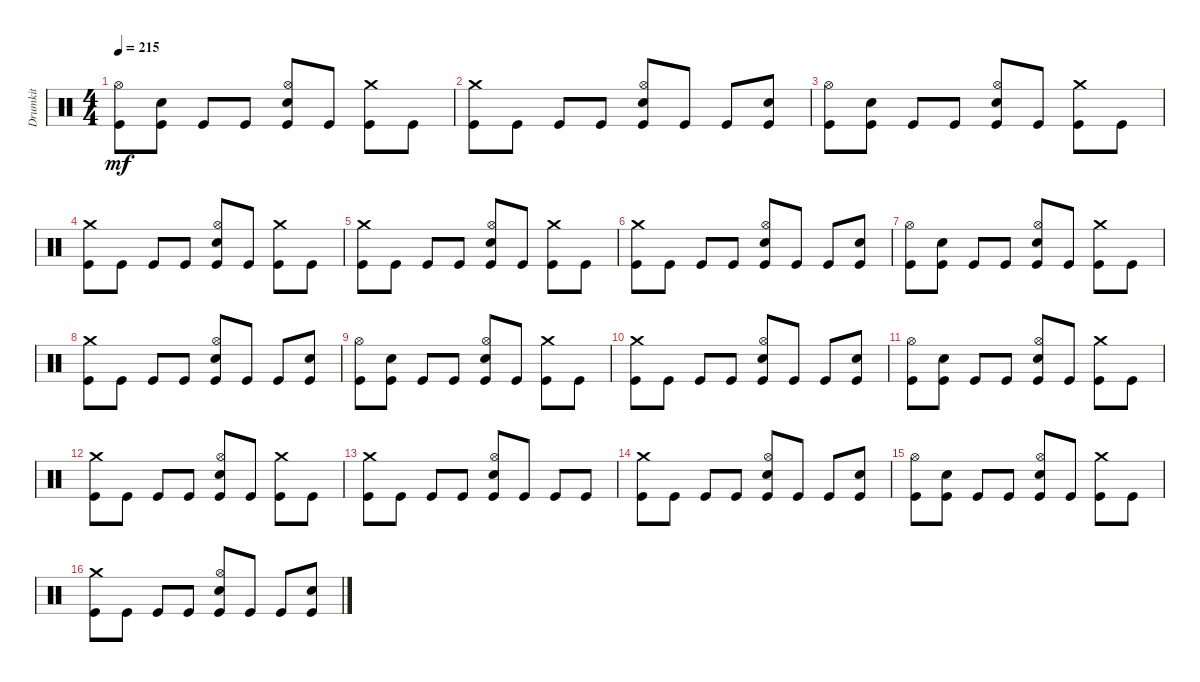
\track ("Drumkit" "Drumkit") {instrument percussion}
\staff {score}
\articulation defaults
\ts (4 4)
\tempo 215
\clef neutral
\ks c
("Kick (hit)" "Hi-Hat (open)").8{dy mf} ("Kick (hit)" "Snare (hit) 2").8 "Kick (hit)".8 "Kick (hit)".8 ("Kick (hit)" "Snare (hit) 2" "Hi-Hat (open)").8 "Kick (hit)".8 ("Kick (hit)" "Crash medium (hit)").8 "Kick (hit)".8 |
("Kick (hit)" "Crash medium (hit)").8 "Kick (hit)".8 "Kick (hit)".8 "Kick (hit)".8 ("Kick (hit)" "Snare (hit) 2" "Hi-Hat (open)").8 "Kick (hit)".8 "Kick (hit)".8 ("Kick (hit)" "Snare (hit) 2").8 |
("Kick (hit)" "Hi-Hat (open)").8 ("Kick (hit)" "Snare (hit) 2").8 "Kick (hit)".8 "Kick (hit)".8 ("Kick (hit)" "Snare (hit) 2" "Hi-Hat (open)").8 "Kick (hit)".8 ("Kick (hit)" "Crash medium (hit)").8 "Kick (hit)".8 |
("Kick (hit)" "Crash medium (hit)").8 "Kick (hit)".8 "Kick (hit)".8 "Kick (hit)".8 ("Kick (hit)" "Snare (hit) 2" "Hi-Hat (open)").8 "Kick (hit)".8 ("Kick (hit)" "Crash medium (hit)").8 "Kick (hit)".8 |
("Kick (hit)" "Crash medium (hit)").8 "Kick (hit)".8 "Kick (hit)".8 "Kick (hit)".8 ("Kick (hit)" "Snare (hit) 2" "Hi-Hat (open)").8 "Kick (hit)".8 ("Kick (hit)" "Crash medium (hit)").8 "Kick (hit)".8 |
("Kick (hit)" "Crash medium (hit)").8 "Kick (hit)".8 "Kick (hit)".8 "Kick (hit)".8 ("Kick (hit)" "Snare (hit) 2" "Hi-Hat (open)").8 "Kick (hit)".8 "Kick (hit)".8 ("Kick (hit)" "Snare (hit) 2").8 |
("Kick (hit)" "Hi-Hat (open)").8 ("Kick (hit)" "Snare (hit) 2").8 "Kick (hit)".8 "Kick (hit)".8 ("Kick (hit)" "Snare (hit) 2" "Hi-Hat (open)").8 "Kick (hit)".8 ("Kick (hit)" "Crash medium (hit)").8 "Kick (hit)".8 |
("Kick (hit)" "Crash medium (hit)").8 "Kick (hit)".8 "Kick (hit)".8 "Kick (hit)".8 ("Kick (hit)" "Snare (hit) 2" "Hi-Hat (open)").8 "Kick (hit)".8 "Kick (hit)".8 ("Kick (hit)" "Snare (hit) 2").8 |
("Kick (hit)" "Hi-Hat (open)").8 ("Kick (hit)" "Snare (hit) 2").8 "Kick (hit)".8 "Kick (hit)".8 ("Kick (hit)" "Snare (hit) 2" "Hi-Hat (open)").8 "Kick (hit)".8 ("Kick (hit)" "Crash medium (hit)").8 "Kick (hit)".8 |
("Kick (hit)" "Crash medium (hit)").8 "Kick (hit)".8 "Kick (hit)".8 "Kick (hit)".8 ("Kick (hit)" "Snare (hit) 2" "Hi-Hat (open)").8 "Kick (hit)".8 "Kick (hit)".8 ("Kick (hit)" "Snare (hit) 2").8 |
("Kick (hit)" "Hi-Hat (open)").8 ("Kick (hit)" "Snare (hit) 2").8 "Kick (hit)".8 "Kick (hit)".8 ("Kick (hit)" "Snare (hit) 2" "Hi-Hat (open)").8 "Kick (hit)".8 ("Kick (hit)" "Crash medium (hit)").8 "Kick (hit)".8 |
("Kick (hit)" "Crash medium (hit)").8 "Kick (hit)".8 "Kick (hit)".8 "Kick (hit)".8 ("Kick (hit)" "Snare (hit) 2" "Hi-Hat (open)").8 "Kick (hit)".8 ("Kick (hit)" "Crash medium (hit)").8 "Kick (hit)".8 |
("Kick (hit)" "Crash medium (hit)").8 "Kick (hit)".8 "Kick (hit)".8 "Kick (hit)".8 ("Kick (hit)" "Snare (hit) 2" "Hi-Hat (open)").8 "Kick (hit)".8 "Kick (hit)".8 "Kick (hit)".8 |
("Kick (hit)" "Crash medium (hit)").8 "Kick (hit)".8 "Kick (hit)".8 "Kick (hit)".8 ("Kick (hit)" "Snare (hit) 2" "Hi-Hat (open)").8 "Kick (hit)".8 "Kick (hit)".8 ("Kick (hit)" "Snare (hit) 2").8 |
("Kick (hit)" "Hi-Hat (open)").8 ("Kick (hit)" "Snare (hit) 2").8 "Kick (hit)".8 "Kick (hit)".8 ("Kick (hit)" "Snare (hit) 2" "Hi-Hat (open)").8 "Kick (hit)".8 ("Kick (hit)" "Crash medium (hit)").8 "Kick (hit)".8 |
("Kick (hit)" "Crash medium (hit)").8 "Kick (hit)".8 "Kick (hit)".8 "Kick (hit)".8 ("Kick (hit)" "Snare (hit) 2" "Hi-Hat (open)").8 "Kick (hit)".8 "Kick (hit)".8 ("Kick (hit)" "Snare (hit) 2").8
